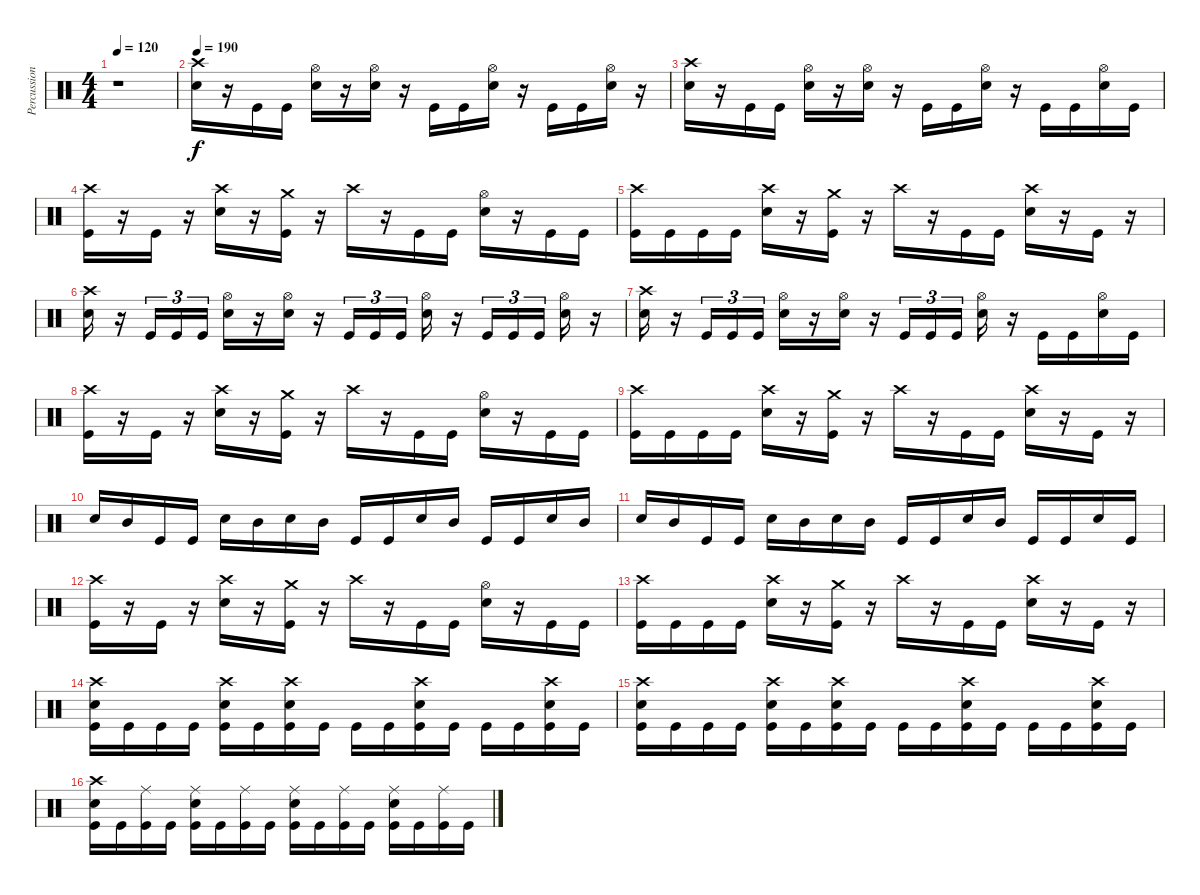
\track ("Percussion" "Percussion") {instrument percussion}
\staff {score}
\articulation defaults
\ts (4 4)
\tempo 120
\clef neutral
\ks c
r.1{dy f} |
\tempo 190
("Crash high (hit)" "Electric Snare (hit)").16 r.16 "Kick (hit)".16 "Kick (hit)".16 ("Hi-Hat (open)" "Electric Snare (hit)").16 r.16 ("Hi-Hat (open)" "Electric Snare (hit)").16 r.16 "Kick (hit)".16 "Kick (hit)".16 ("Hi-Hat (open)" "Electric Snare (hit)").16 r.16 "Kick (hit)".16 "Kick (hit)".16 ("Hi-Hat (open)" "Electric Snare (hit)").16 r.16 |
("Crash high (hit)" "Electric Snare (hit)").16 r.16 "Kick (hit)".16 "Kick (hit)".16 ("Hi-Hat (open)" "Electric Snare (hit)").16 r.16 ("Hi-Hat (open)" "Electric Snare (hit)").16 r.16 "Kick (hit)".16 "Kick (hit)".16 ("Hi-Hat (open)" "Electric Snare (hit)").16 r.16 "Kick (hit)".16 "Kick (hit)".16 ("Hi-Hat (open)" "Electric Snare (hit)").16 "Kick (hit)".16 |
("Crash high (hit)" "Kick (hit)").16 r.16 "Kick (hit)".16 r.16 ("Crash high (hit)" "Electric Snare (hit)").16 r.16 ("Crash medium (hit)" "Kick (hit)").16 r.16 "Crash high (hit)".16 r.16 "Kick (hit)".16 "Kick (hit)".16 ("Hi-Hat (open)" "Electric Snare (hit)").16 r.16 "Kick (hit)".16 "Kick (hit)".16 |
("Crash high (hit)" "Kick (hit)").16 "Kick (hit)".16 "Kick (hit)".16 "Kick (hit)".16 ("Crash high (hit)" "Electric Snare (hit)").16 r.16 ("Crash medium (hit)" "Kick (hit)").16 r.16 "Crash high (hit)".16 r.16 "Kick (hit)".16 "Kick (hit)".16 ("Crash high (hit)" "Electric Snare (hit)").16 r.16 "Kick (hit)".16 r.16 |
("Crash high (hit)" "Electric Snare (hit)").16 r.16 "Kick (hit)".16{tu (3 2)} "Kick (hit)".16{tu (3 2)} "Kick (hit)".16{tu (3 2)} ("Hi-Hat (open)" "Electric Snare (hit)").16 r.16 ("Hi-Hat (open)" "Electric Snare (hit)").16 r.16 "Kick (hit)".16{tu (3 2)} "Kick (hit)".16{tu (3 2)} "Kick (hit)".16{tu (3 2) beam splitsecondary} ("Hi-Hat (open)" "Electric Snare (hit)").16 r.16 "Kick (hit)".16{tu (3 2)} "Kick (hit)".16{tu (3 2)} "Kick (hit)".16{tu (3 2) beam splitsecondary} ("Hi-Hat (open)" "Electric Snare (hit)").16 r.16 |
("Crash high (hit)" "Electric Snare (hit)").16 r.16 "Kick (hit)".16{tu (3 2)} "Kick (hit)".16{tu (3 2)} "Kick (hit)".16{tu (3 2)} ("Hi-Hat (open)" "Electric Snare (hit)").16 r.16 ("Hi-Hat (open)" "Electric Snare (hit)").16 r.16 "Kick (hit)".16{tu (3 2)} "Kick (hit)".16{tu (3 2)} "Kick (hit)".16{tu (3 2) beam splitsecondary} ("Hi-Hat (open)" "Electric Snare (hit)").16 r.16 "Kick (hit)".16 "Kick (hit)".16 ("Hi-Hat (open)" "Electric Snare (hit)").16 "Kick (hit)".16 |
("Crash high (hit)" "Kick (hit)").16 r.16 "Kick (hit)".16 r.16 ("Crash high (hit)" "Electric Snare (hit)").16 r.16 ("Crash medium (hit)" "Kick (hit)").16 r.16 "Crash high (hit)".16 r.16 "Kick (hit)".16 "Kick (hit)".16 ("Hi-Hat (open)" "Electric Snare (hit)").16 r.16 "Kick (hit)".16 "Kick (hit)".16 |
("Crash high (hit)" "Kick (hit)").16 "Kick (hit)".16 "Kick (hit)".16 "Kick (hit)".16 ("Crash high (hit)" "Electric Snare (hit)").16 r.16 ("Crash medium (hit)" "Kick (hit)").16 r.16 "Crash high (hit)".16 r.16 "Kick (hit)".16 "Kick (hit)".16 ("Crash high (hit)" "Electric Snare (hit)").16 r.16 "Kick (hit)".16 r.16 |
"Electric Snare (hit)".16 "Mid Tom (hit)".16 "Kick (hit)".16 "Kick (hit)".16 "Electric Snare (hit)".16 "Mid Tom (hit)".16 "Electric Snare (hit)".16 "Mid Tom (hit)".16 "Kick (hit)".16 "Kick (hit)".16 "Electric Snare (hit)".16 "Mid Tom (hit)".16 "Kick (hit)".16 "Kick (hit)".16 "Electric Snare (hit)".16 "Mid Tom (hit)".16 |
"Electric Snare (hit)".16 "Mid Tom (hit)".16 "Kick (hit)".16 "Kick (hit)".16 "Electric Snare (hit)".16 "Mid Tom (hit)".16 "Electric Snare (hit)".16 "Mid Tom (hit)".16 "Kick (hit)".16 "Kick (hit)".16 "Electric Snare (hit)".16 "Mid Tom (hit)".16 "Kick (hit)".16 "Kick (hit)".16 "Electric Snare (hit)".16 "Kick (hit)".16 |
("Crash high (hit)" "Kick (hit)").16 r.16 "Kick (hit)".16 r.16 ("Crash high (hit)" "Electric Snare (hit)").16 r.16 ("Crash medium (hit)" "Kick (hit)").16 r.16 "Crash high (hit)".16 r.16 "Kick (hit)".16 "Kick (hit)".16 ("Hi-Hat (open)" "Electric Snare (hit)").16 r.16 "Kick (hit)".16 "Kick (hit)".16 |
("Crash high (hit)" "Kick (hit)").16 "Kick (hit)".16 "Kick (hit)".16 "Kick (hit)".16 ("Crash high (hit)" "Electric Snare (hit)").16 r.16 ("Crash medium (hit)" "Kick (hit)").16 r.16 "Crash high (hit)".16 r.16 "Kick (hit)".16 "Kick (hit)".16 ("Crash high (hit)" "Electric Snare (hit)").16 r.16 "Kick (hit)".16 r.16 |
("Crash high (hit)" "Electric Snare (hit)" "Kick (hit)").16 "Kick (hit)".16 "Kick (hit)".16 "Kick (hit)".16 ("Crash high (hit)" "Electric Snare (hit)" "Kick (hit)").16 "Kick (hit)".16 ("Crash high (hit)" "Electric Snare (hit)" "Kick (hit)").16 "Kick (hit)".16 "Kick (hit)".16 "Kick (hit)".16 ("Crash high (hit)" "Electric Snare (hit)" "Kick (hit)").16 "Kick (hit)".16 "Kick (hit)".16 "Kick (hit)".16 ("Crash high (hit)" "Electric Snare (hit)" "Kick (hit)").16 "Kick (hit)".16 |
("Crash high (hit)" "Electric Snare (hit)" "Kick (hit)").16 "Kick (hit)".16 "Kick (hit)".16 "Kick (hit)".16 ("Crash high (hit)" "Electric Snare (hit)" "Kick (hit)").16 "Kick (hit)".16 ("Crash high (hit)" "Electric Snare (hit)" "Kick (hit)").16 "Kick (hit)".16 "Kick (hit)".16 "Kick (hit)".16 ("Crash high (hit)" "Electric Snare (hit)" "Kick (hit)").16 "Kick (hit)".16 "Kick (hit)".16 "Kick (hit)".16 ("Crash high (hit)" "Electric Snare (hit)" "Kick (hit)").16 "Kick (hit)".16 |
("Crash high (hit)" "Electric Snare (hit)" "Kick (hit)").16 "Kick (hit)".16 ("Ride (middle)" "Kick (hit)").16 "Kick (hit)".16 ("Ride (middle)" "Electric Snare (hit)" "Kick (hit)").16 "Kick (hit)".16 ("Ride (middle)" "Kick (hit)").16 "Kick (hit)".16 ("Ride (middle)" "Electric Snare (hit)" "Kick (hit)").16 "Kick (hit)".16 ("Ride (middle)" "Kick (hit)").16 "Kick (hit)".16 ("Ride (middle)" "Electric Snare (hit)" "Kick (hit)").16 "Kick (hit)".16 ("Ride (middle)" "Kick (hit)").16 "Kick (hit)".16
